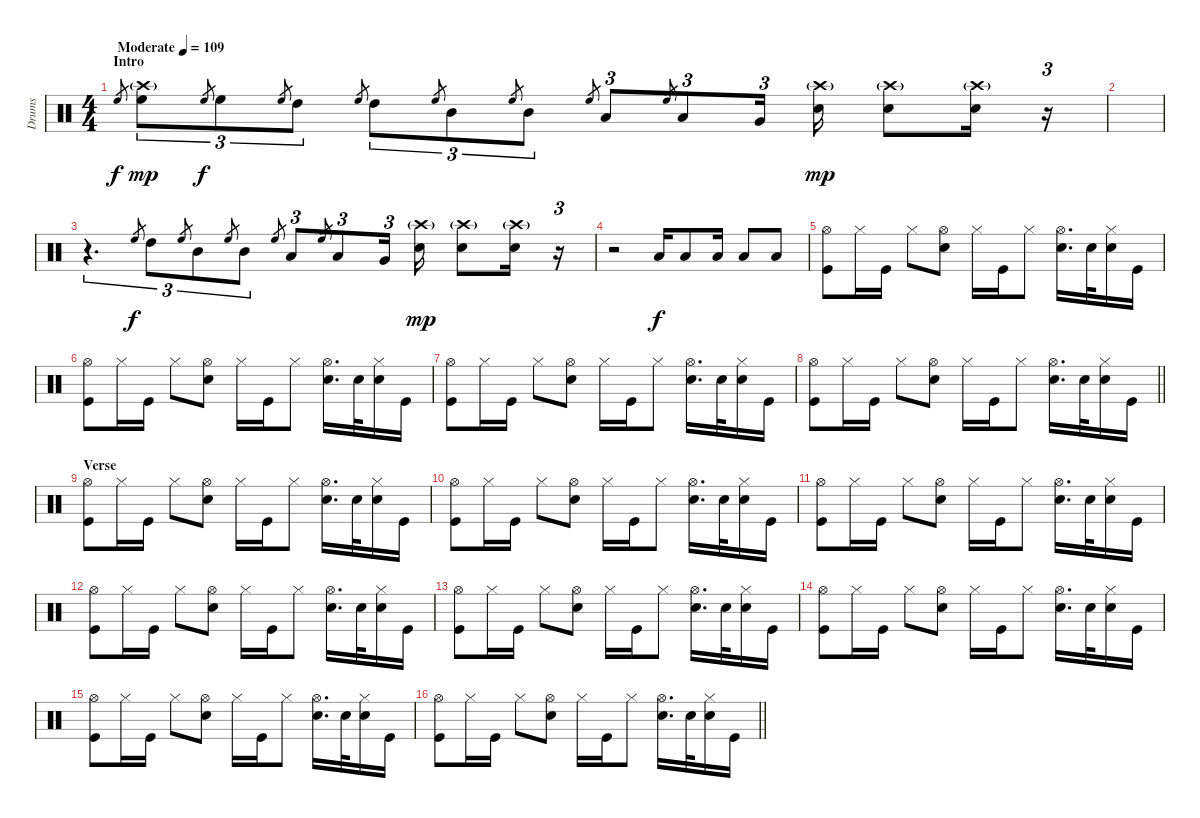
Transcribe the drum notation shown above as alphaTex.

\track ("Drums" "Drums") {instrument percussion}
\staff {score}
\articulation defaults
\ts (4 4)
\section ("" "Intro")
\tempo (109 "Moderate")
\clef neutral
\ks c "High Floor Tom (hit)".8{gr dy f}
("Crash high (hit)"{g} "High Floor Tom (hit)").8{tu (3 2) dy mp} "High Floor Tom (hit)".8{gr dy f} "High Floor Tom (hit)".8{tu (3 2)} "High Floor Tom (hit)".8{gr} "High Tom (hit)".8{tu (3 2)} "High Floor Tom (hit)".8{gr} "High Tom (hit)".8{tu (3 2)} "High Floor Tom (hit)".8{gr} "Mid Tom (hit)".8{tu (3 2)} "High Floor Tom (hit)".8{gr} "Mid Tom (hit)".8{tu (3 2)} "High Floor Tom (hit)".8{gr} "Low Tom (hit)".8{tu (3 2)} "High Floor Tom (hit)".8{gr} "Low Tom (hit)".8{tu (3 2)} "Very Low Tom (hit)".16{tu (3 2)} ("Crash high (hit)"{g} "Electric Snare (hit)").16{dy mp} ("Crash high (hit)"{g} "Electric Snare (hit)").8 ("Crash high (hit)"{g} "Electric Snare (hit)").16 r.16{tu (3 2)} |
|
r.4{d tu (3 2)} "High Floor Tom (hit)".8{gr dy f} "High Tom (hit)".8{tu (3 2)} "High Floor Tom (hit)".8{gr} "Mid Tom (hit)".8{tu (3 2)} "High Floor Tom (hit)".8{gr} "Mid Tom (hit)".8{tu (3 2)} "High Floor Tom (hit)".8{gr} "Low Tom (hit)".8{tu (3 2)} "High Floor Tom (hit)".8{gr} "Low Tom (hit)".8{tu (3 2)} "Very Low Tom (hit)".16{tu (3 2)} ("Crash high (hit)"{g} "Electric Snare (hit)").16{dy mp} ("Crash high (hit)"{g} "Electric Snare (hit)").8 ("Crash high (hit)"{g} "Electric Snare (hit)").16 r.16{tu (3 2)} |
r.2 "Low Tom (hit)".16{dy f} "Low Tom (hit)".8 "Low Tom (hit)".16 "Low Tom (hit)".8 "Low Tom (hit)".8 |
("Hi-Hat (open)" "Kick (hit)").8 "Hi-Hat (closed)".16 "Kick (hit)".16 "Hi-Hat (closed)".8 ("Hi-Hat (open)" "Electric Snare (hit)").8 "Hi-Hat (closed)".16 "Kick (hit)".16 "Hi-Hat (closed)".8 ("Hi-Hat (open)" "Electric Snare (hit)").16{d} "Electric Snare (hit)".32 ("Hi-Hat (closed)" "Electric Snare (hit)").16 "Kick (hit)".16 |
("Hi-Hat (open)" "Kick (hit)").8 "Hi-Hat (closed)".16 "Kick (hit)".16 "Hi-Hat (closed)".8 ("Hi-Hat (open)" "Electric Snare (hit)").8 "Hi-Hat (closed)".16 "Kick (hit)".16 "Hi-Hat (closed)".8 ("Hi-Hat (open)" "Electric Snare (hit)").16{d} "Electric Snare (hit)".32 ("Hi-Hat (closed)" "Electric Snare (hit)").16 "Kick (hit)".16 |
("Hi-Hat (open)" "Kick (hit)").8 "Hi-Hat (closed)".16 "Kick (hit)".16 "Hi-Hat (closed)".8 ("Hi-Hat (open)" "Electric Snare (hit)").8 "Hi-Hat (closed)".16 "Kick (hit)".16 "Hi-Hat (closed)".8 ("Hi-Hat (open)" "Electric Snare (hit)").16{d} "Electric Snare (hit)".32 ("Hi-Hat (closed)" "Electric Snare (hit)").16 "Kick (hit)".16 |
\barLineRight lightlight
("Hi-Hat (open)" "Kick (hit)").8 "Hi-Hat (closed)".16 "Kick (hit)".16 "Hi-Hat (closed)".8 ("Hi-Hat (open)" "Electric Snare (hit)").8 "Hi-Hat (closed)".16 "Kick (hit)".16 "Hi-Hat (closed)".8 ("Hi-Hat (open)" "Electric Snare (hit)").16{d} "Electric Snare (hit)".32 ("Hi-Hat (closed)" "Electric Snare (hit)").16 "Kick (hit)".16 |
\section ("" "Verse")
("Hi-Hat (open)" "Kick (hit)").8 "Hi-Hat (closed)".16 "Kick (hit)".16 "Hi-Hat (closed)".8 ("Hi-Hat (open)" "Electric Snare (hit)").8 "Hi-Hat (closed)".16 "Kick (hit)".16 "Hi-Hat (closed)".8 ("Hi-Hat (open)" "Electric Snare (hit)").16{d} "Electric Snare (hit)".32 ("Hi-Hat (closed)" "Electric Snare (hit)").16 "Kick (hit)".16 |
("Hi-Hat (open)" "Kick (hit)").8 "Hi-Hat (closed)".16 "Kick (hit)".16 "Hi-Hat (closed)".8 ("Hi-Hat (open)" "Electric Snare (hit)").8 "Hi-Hat (closed)".16 "Kick (hit)".16 "Hi-Hat (closed)".8 ("Hi-Hat (open)" "Electric Snare (hit)").16{d} "Electric Snare (hit)".32 ("Hi-Hat (closed)" "Electric Snare (hit)").16 "Kick (hit)".16 |
("Hi-Hat (open)" "Kick (hit)").8 "Hi-Hat (closed)".16 "Kick (hit)".16 "Hi-Hat (closed)".8 ("Hi-Hat (open)" "Electric Snare (hit)").8 "Hi-Hat (closed)".16 "Kick (hit)".16 "Hi-Hat (closed)".8 ("Hi-Hat (open)" "Electric Snare (hit)").16{d} "Electric Snare (hit)".32 ("Hi-Hat (closed)" "Electric Snare (hit)").16 "Kick (hit)".16 |
("Hi-Hat (open)" "Kick (hit)").8 "Hi-Hat (closed)".16 "Kick (hit)".16 "Hi-Hat (closed)".8 ("Hi-Hat (open)" "Electric Snare (hit)").8 "Hi-Hat (closed)".16 "Kick (hit)".16 "Hi-Hat (closed)".8 ("Hi-Hat (open)" "Electric Snare (hit)").16{d} "Electric Snare (hit)".32 ("Hi-Hat (closed)" "Electric Snare (hit)").16 "Kick (hit)".16 |
("Hi-Hat (open)" "Kick (hit)").8 "Hi-Hat (closed)".16 "Kick (hit)".16 "Hi-Hat (closed)".8 ("Hi-Hat (open)" "Electric Snare (hit)").8 "Hi-Hat (closed)".16 "Kick (hit)".16 "Hi-Hat (closed)".8 ("Hi-Hat (open)" "Electric Snare (hit)").16{d} "Electric Snare (hit)".32 ("Hi-Hat (closed)" "Electric Snare (hit)").16 "Kick (hit)".16 |
("Hi-Hat (open)" "Kick (hit)").8 "Hi-Hat (closed)".16 "Kick (hit)".16 "Hi-Hat (closed)".8 ("Hi-Hat (open)" "Electric Snare (hit)").8 "Hi-Hat (closed)".16 "Kick (hit)".16 "Hi-Hat (closed)".8 ("Hi-Hat (open)" "Electric Snare (hit)").16{d} "Electric Snare (hit)".32 ("Hi-Hat (closed)" "Electric Snare (hit)").16 "Kick (hit)".16 |
("Hi-Hat (open)" "Kick (hit)").8 "Hi-Hat (closed)".16 "Kick (hit)".16 "Hi-Hat (closed)".8 ("Hi-Hat (open)" "Electric Snare (hit)").8 "Hi-Hat (closed)".16 "Kick (hit)".16 "Hi-Hat (closed)".8 ("Hi-Hat (open)" "Electric Snare (hit)").16{d} "Electric Snare (hit)".32 ("Hi-Hat (closed)" "Electric Snare (hit)").16 "Kick (hit)".16 |
\barLineRight lightlight
("Hi-Hat (open)" "Kick (hit)").8 "Hi-Hat (closed)".16 "Kick (hit)".16 "Hi-Hat (closed)".8 ("Hi-Hat (open)" "Electric Snare (hit)").8 "Hi-Hat (closed)".16 "Kick (hit)".16 "Hi-Hat (closed)".8 ("Hi-Hat (open)" "Electric Snare (hit)").16{d} "Electric Snare (hit)".32 ("Hi-Hat (closed)" "Electric Snare (hit)").16 "Kick (hit)".16
